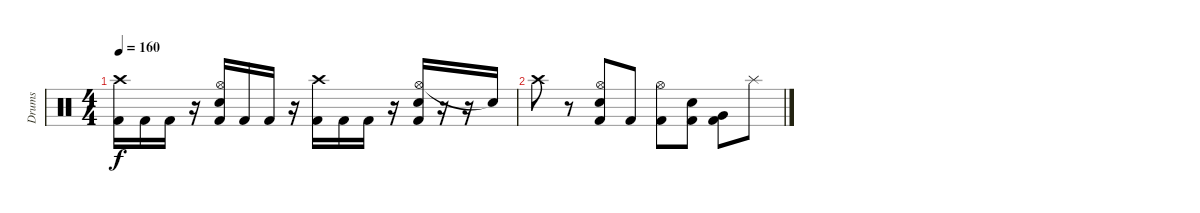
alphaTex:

\track ("Drums" "Drums") {instrument percussion}
\staff {score}
\articulation defaults
\ts (4 4)
\tempo 160
\clef neutral
\ks c
("Crash high (hit)" "Kick (hit) 2").16{dy f} "Kick (hit) 2".16 "Kick (hit) 2".16 r.16 ("Hi-Hat (open)" "Snare (hit) 2" "Kick (hit) 2").16 "Kick (hit) 2".16 "Kick (hit) 2".16 r.16 ("Crash high (hit)" "Kick (hit) 2").16 "Kick (hit) 2".16 "Kick (hit) 2".16 r.16 ("Hi-Hat (open)" "Snare (hit) 2" "Kick (hit) 2").16 r.16 r.16 "Snare (hit)"{t}.16 |
"Crash high (hit)".8 r.8 ("Hi-Hat (open)" "Snare (hit) 2" "Kick (hit) 2").8 "Kick (hit) 2".8 ("Hi-Hat (open)" "Kick (hit) 2").8 ("Snare (hit) 2" "Kick (hit) 2").8 ("Very Low Tom (hit)" "Kick (hit) 2").8 "Splash (hit)".8
